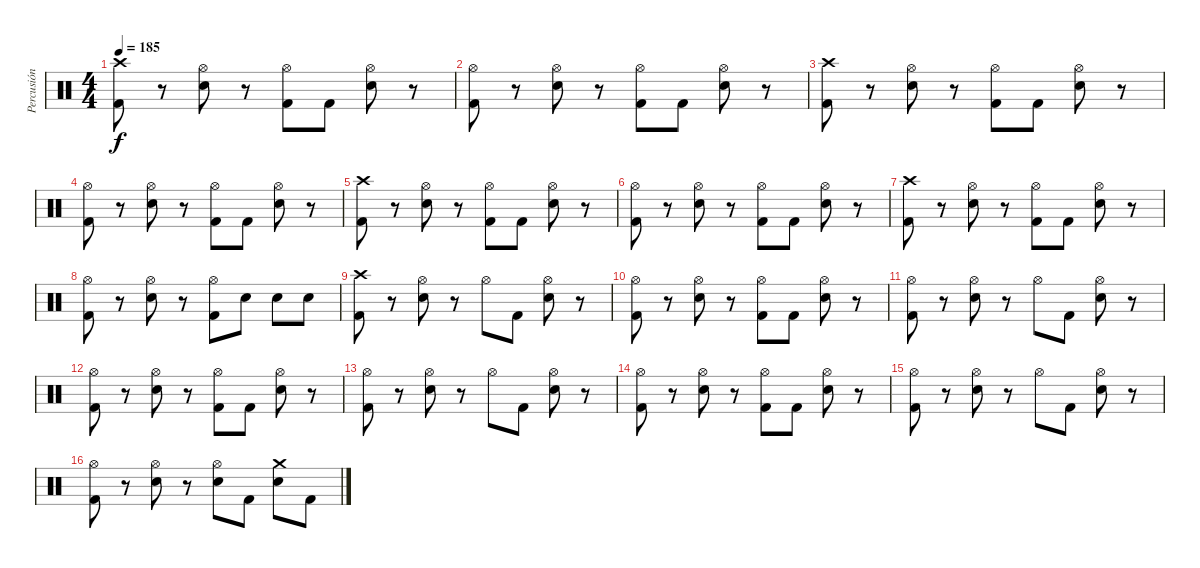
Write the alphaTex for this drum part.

\track ("Percusión" "Percusión") {instrument percussion}
\staff {score}
\articulation defaults
\ts (4 4)
\tempo 185
\clef neutral
\ks c
("Crash high (hit)" "Kick (hit) 2").8{dy f} r.8 ("Hi-Hat (open)" "Electric Snare (hit)").8 r.8 ("Hi-Hat (open)" "Kick (hit) 2").8 "Kick (hit) 2".8 ("Hi-Hat (open)" "Electric Snare (hit)").8 r.8 |
("Hi-Hat (open)" "Kick (hit) 2").8 r.8 ("Hi-Hat (open)" "Electric Snare (hit)").8 r.8 ("Hi-Hat (open)" "Kick (hit) 2").8 "Kick (hit) 2".8 ("Hi-Hat (open)" "Electric Snare (hit)").8 r.8 |
("Crash high (hit)" "Kick (hit) 2").8 r.8 ("Hi-Hat (open)" "Electric Snare (hit)").8 r.8 ("Hi-Hat (open)" "Kick (hit) 2").8 "Kick (hit) 2".8 ("Hi-Hat (open)" "Electric Snare (hit)").8 r.8 |
("Hi-Hat (open)" "Kick (hit) 2").8 r.8 ("Hi-Hat (open)" "Electric Snare (hit)").8 r.8 ("Hi-Hat (open)" "Kick (hit) 2").8 "Kick (hit) 2".8 ("Hi-Hat (open)" "Electric Snare (hit)").8 r.8 |
("Crash high (hit)" "Kick (hit) 2").8 r.8 ("Hi-Hat (open)" "Electric Snare (hit)").8 r.8 ("Hi-Hat (open)" "Kick (hit) 2").8 "Kick (hit) 2".8 ("Hi-Hat (open)" "Electric Snare (hit)").8 r.8 |
("Hi-Hat (open)" "Kick (hit) 2").8 r.8 ("Hi-Hat (open)" "Electric Snare (hit)").8 r.8 ("Hi-Hat (open)" "Kick (hit) 2").8 "Kick (hit) 2".8 ("Hi-Hat (open)" "Electric Snare (hit)").8 r.8 |
("Crash high (hit)" "Kick (hit) 2").8 r.8 ("Hi-Hat (open)" "Electric Snare (hit)").8 r.8 ("Hi-Hat (open)" "Kick (hit) 2").8 "Kick (hit) 2".8 ("Hi-Hat (open)" "Electric Snare (hit)").8 r.8 |
("Hi-Hat (open)" "Kick (hit) 2").8 r.8 ("Hi-Hat (open)" "Electric Snare (hit)").8 r.8 ("Hi-Hat (open)" "Kick (hit) 2").8 "Electric Snare (hit)".8 "Electric Snare (hit)".8 "Electric Snare (hit)".8 |
("Crash high (hit)" "Kick (hit) 2").8 r.8 ("Hi-Hat (open)" "Electric Snare (hit)").8 r.8 "Hi-Hat (open)".8 "Kick (hit) 2".8 ("Hi-Hat (open)" "Electric Snare (hit)").8 r.8 |
("Hi-Hat (open)" "Kick (hit) 2").8 r.8 ("Hi-Hat (open)" "Electric Snare (hit)").8 r.8 ("Hi-Hat (open)" "Kick (hit) 2").8 "Kick (hit) 2".8 ("Hi-Hat (open)" "Electric Snare (hit)").8 r.8 |
("Hi-Hat (open)" "Kick (hit) 2").8 r.8 ("Hi-Hat (open)" "Electric Snare (hit)").8 r.8 "Hi-Hat (open)".8 "Kick (hit) 2".8 ("Hi-Hat (open)" "Electric Snare (hit)").8 r.8 |
("Hi-Hat (open)" "Kick (hit) 2").8 r.8 ("Hi-Hat (open)" "Electric Snare (hit)").8 r.8 ("Hi-Hat (open)" "Kick (hit) 2").8 "Kick (hit) 2".8 ("Hi-Hat (open)" "Electric Snare (hit)").8 r.8 |
("Hi-Hat (open)" "Kick (hit) 2").8 r.8 ("Hi-Hat (open)" "Electric Snare (hit)").8 r.8 "Hi-Hat (open)".8 "Kick (hit) 2".8 ("Hi-Hat (open)" "Electric Snare (hit)").8 r.8 |
("Hi-Hat (open)" "Kick (hit) 2").8 r.8 ("Hi-Hat (open)" "Electric Snare (hit)").8 r.8 ("Hi-Hat (open)" "Kick (hit) 2").8 "Kick (hit) 2".8 ("Hi-Hat (open)" "Electric Snare (hit)").8 r.8 |
("Hi-Hat (open)" "Kick (hit) 2").8 r.8 ("Hi-Hat (open)" "Electric Snare (hit)").8 r.8 "Hi-Hat (open)".8 "Kick (hit) 2".8 ("Hi-Hat (open)" "Electric Snare (hit)").8 r.8 |
("Hi-Hat (open)" "Kick (hit) 2").8 r.8 ("Hi-Hat (open)" "Electric Snare (hit)").8 r.8 ("Hi-Hat (open)" "Electric Snare (hit)").8 "Kick (hit) 2".8 ("Crash medium (hit)" "Electric Snare (hit)").8 "Kick (hit) 2".8
